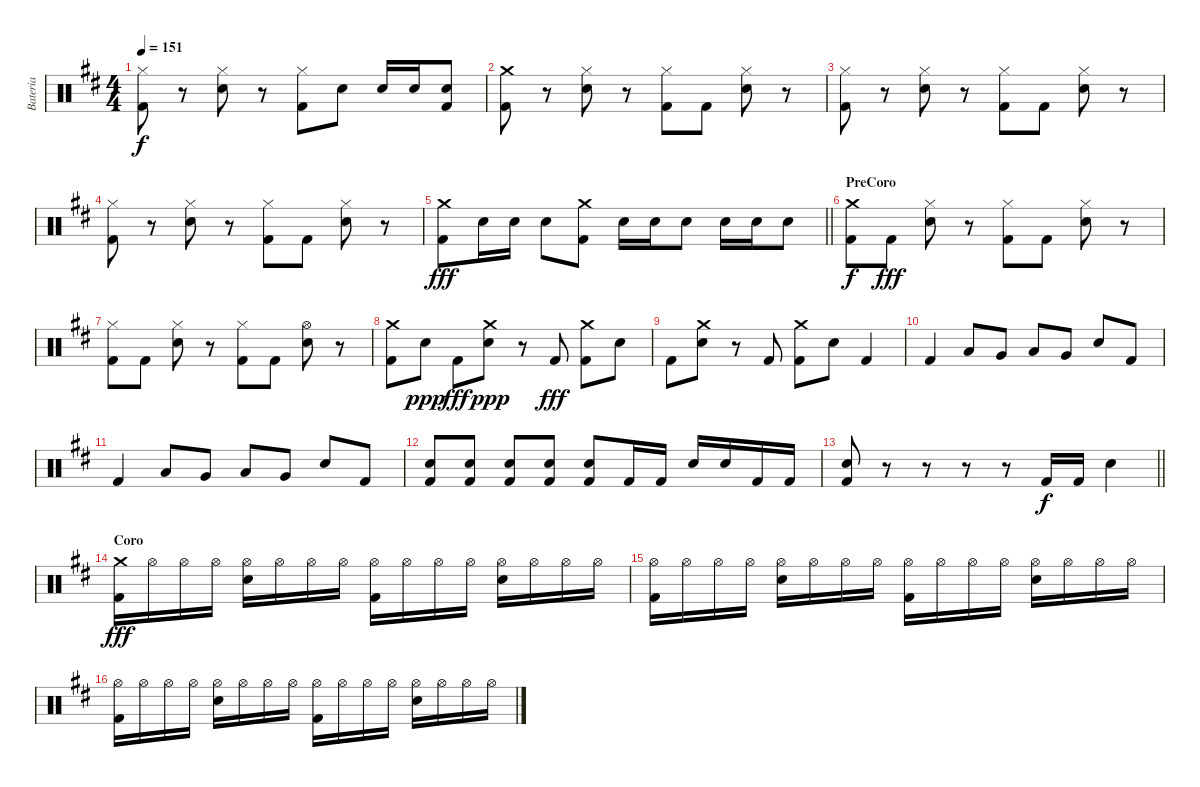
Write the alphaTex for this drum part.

\track ("Bateria " "Bateria ") {instrument percussion}
\staff {score}
\articulation defaults
\ts (4 4)
\tempo 151
\clef neutral
\ks d
("Hi-Hat (closed)" "Kick (hit) 2").8{dy f} r.8 ("Hi-Hat (closed)" "Electric Snare (hit)").8 r.8 ("Hi-Hat (closed)" "Kick (hit) 2").8 "Electric Snare (hit)".8 "Electric Snare (hit)".16 "Electric Snare (hit)".16 ("Electric Snare (hit)" "Kick (hit) 2").8 |
("Crash medium (hit)" "Kick (hit) 2").8 r.8 ("Hi-Hat (closed)" "Electric Snare (hit)").8 r.8 ("Hi-Hat (closed)" "Kick (hit) 2").8 "Kick (hit) 2".8 ("Hi-Hat (closed)" "Electric Snare (hit)").8 r.8 |
("Hi-Hat (closed)" "Kick (hit) 2").8 r.8 ("Hi-Hat (closed)" "Electric Snare (hit)").8 r.8 ("Hi-Hat (closed)" "Kick (hit) 2").8 "Kick (hit) 2".8 ("Hi-Hat (closed)" "Electric Snare (hit)").8 r.8 |
("Hi-Hat (closed)" "Kick (hit) 2").8 r.8 ("Hi-Hat (closed)" "Electric Snare (hit)").8 r.8 ("Hi-Hat (closed)" "Kick (hit) 2").8 "Kick (hit) 2".8 ("Hi-Hat (closed)" "Electric Snare (hit)").8 r.8 |
\barLineRight lightlight
("Crash medium (hit)" "Kick (hit) 2").8{dy fff} "Electric Snare (hit)".16 "Electric Snare (hit)".16 "Electric Snare (hit)".8 ("Crash medium (hit)" "Kick (hit) 2").8 "Electric Snare (hit)".16 "Electric Snare (hit)".16 "Electric Snare (hit)".8 "Electric Snare (hit)".16 "Electric Snare (hit)".16 "Electric Snare (hit)".8 |
\section ("" "PreCoro")
("Crash medium (hit)" "Kick (hit) 2").8{dy f} "Kick (hit) 2".8{dy fff} ("Hi-Hat (closed)" "Electric Snare (hit)").8 r.8 ("Hi-Hat (closed)" "Kick (hit) 2").8 "Kick (hit) 2".8 ("Hi-Hat (closed)" "Electric Snare (hit)").8 r.8 |
("Hi-Hat (closed)" "Kick (hit) 2").8 "Kick (hit) 2".8 ("Hi-Hat (closed)" "Electric Snare (hit)").8 r.8 ("Hi-Hat (closed)" "Kick (hit) 2").8 "Kick (hit) 2".8 ("Hi-Hat (open)" "Electric Snare (hit)").8 r.8 |
("Crash medium (hit)" "Kick (hit) 2").8 "Electric Snare (hit)".8{dy ppp} "Kick (hit) 2".8{dy fff} ("Crash medium (hit)" "Electric Snare (hit)").8{dy ppp} r.8 "Kick (hit) 2".8{dy fff} ("Crash medium (hit)" "Kick (hit) 2").8 "Electric Snare (hit)".8 |
"Kick (hit) 2".8 ("Crash medium (hit)" "Electric Snare (hit)").8 r.8 "Kick (hit) 2".8 ("Crash medium (hit)" "Kick (hit) 2").8 "Electric Snare (hit)".8 "Kick (hit) 2".4 |
"Kick (hit) 2".4 "Low Tom (hit)".8 "Very Low Tom (hit)".8 "Low Floor Tom (hit)".8 "Very Low Tom (hit)".8 "Electric Snare (hit)".8 "Kick (hit) 2".8 |
"Kick (hit) 2".4 "Low Tom (hit)".8 "Very Low Tom (hit)".8 "Low Floor Tom (hit)".8 "Very Low Tom (hit)".8 "Electric Snare (hit)".8 "Kick (hit) 2".8 |
("Electric Snare (hit)" "Kick (hit) 2").8 ("Electric Snare (hit)" "Kick (hit) 2").8 ("Electric Snare (hit)" "Kick (hit) 2").8 ("Electric Snare (hit)" "Kick (hit) 2").8 ("Electric Snare (hit)" "Kick (hit) 2").8 "Kick (hit) 2".16 "Kick (hit) 2".16 "Electric Snare (hit)".16 "Electric Snare (hit)".16 "Kick (hit) 2".16 "Kick (hit) 2".16 |
\barLineRight lightlight
("Electric Snare (hit)" "Kick (hit) 2").8 r.8 r.8 r.8 r.8 "Kick (hit) 2".16{dy f} "Kick (hit) 2".16 "Electric Snare (hit)".4 |
\section ("" "Coro")
("Crash medium (hit)" "Kick (hit) 2").16{dy fff} "Hi-Hat (open)".16 "Hi-Hat (open)".16 "Hi-Hat (open)".16 ("Hi-Hat (open)" "Electric Snare (hit)").16 "Hi-Hat (open)".16 "Hi-Hat (open)".16 "Hi-Hat (open)".16 ("Hi-Hat (open)" "Kick (hit) 2").16 "Hi-Hat (open)".16 "Hi-Hat (open)".16 "Hi-Hat (open)".16 ("Hi-Hat (open)" "Electric Snare (hit)").16 "Hi-Hat (open)".16 "Hi-Hat (open)".16 "Hi-Hat (open)".16 |
("Hi-Hat (open)" "Kick (hit) 2").16 "Hi-Hat (open)".16 "Hi-Hat (open)".16 "Hi-Hat (open)".16 ("Hi-Hat (open)" "Electric Snare (hit)").16 "Hi-Hat (open)".16 "Hi-Hat (open)".16 "Hi-Hat (open)".16 ("Hi-Hat (open)" "Kick (hit) 2").16 "Hi-Hat (open)".16 "Hi-Hat (open)".16 "Hi-Hat (open)".16 ("Hi-Hat (open)" "Electric Snare (hit)").16 "Hi-Hat (open)".16 "Hi-Hat (open)".16 "Hi-Hat (open)".16 |
("Hi-Hat (open)" "Kick (hit) 2").16 "Hi-Hat (open)".16 "Hi-Hat (open)".16 "Hi-Hat (open)".16 ("Hi-Hat (open)" "Electric Snare (hit)").16 "Hi-Hat (open)".16 "Hi-Hat (open)".16 "Hi-Hat (open)".16 ("Hi-Hat (open)" "Kick (hit) 2").16 "Hi-Hat (open)".16 "Hi-Hat (open)".16 "Hi-Hat (open)".16 ("Hi-Hat (open)" "Electric Snare (hit)").16 "Hi-Hat (open)".16 "Hi-Hat (open)".16 "Hi-Hat (open)".16
